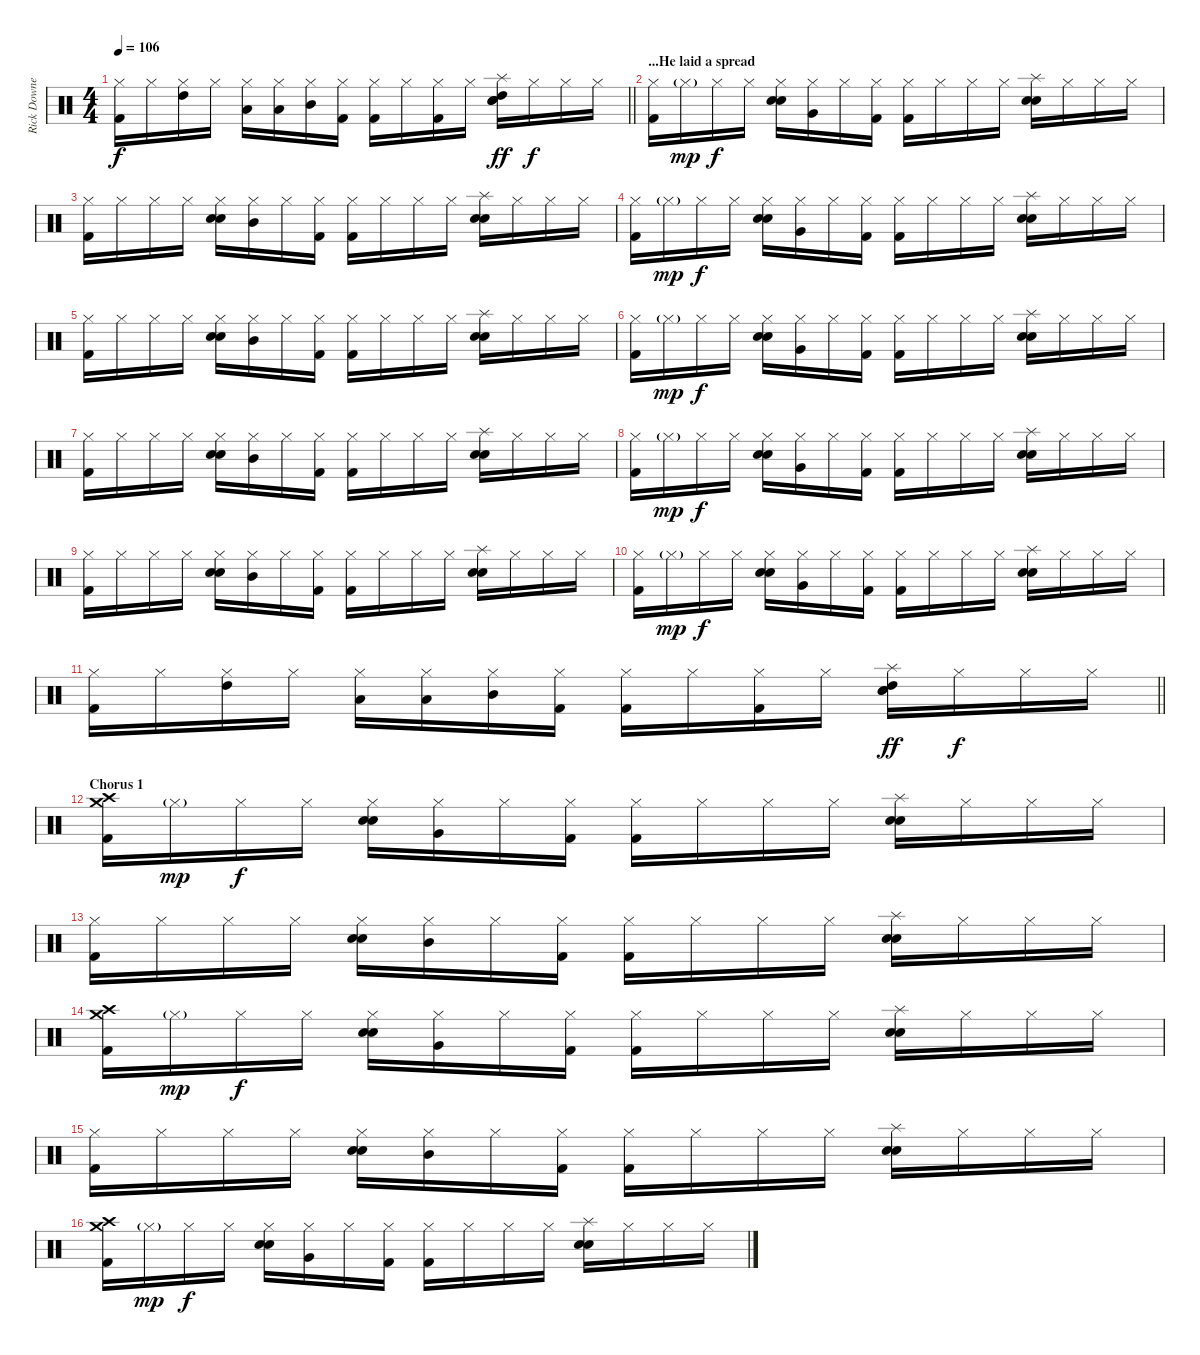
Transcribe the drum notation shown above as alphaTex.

\track ("Rick Downey" "Rick Downe") {instrument percussion}
\staff {score}
\articulation defaults
\ts (4 4)
\tempo 106
\clef neutral
\barLineRight lightlight
\ks c
("Hi-Hat (closed)" "Kick (hit) 2").16{dy f} "Hi-Hat (closed)".16 ("High Tom (hit)" "Hi-Hat (closed)").16 "Hi-Hat (closed)".16 ("Low Tom (hit)" "Hi-Hat (closed)").16 ("Low Tom (hit)" "Hi-Hat (closed)").16 ("Mid Tom (hit)" "Hi-Hat (closed)").16 ("Hi-Hat (closed)" "Kick (hit) 2").16 ("Hi-Hat (closed)" "Kick (hit) 2").16 "Hi-Hat (closed)".16 ("Hi-Hat (closed)" "Kick (hit) 2").16 "Hi-Hat (closed)".16 ("Splash (hit)" "High Tom (hit)" "Electric Snare (hit)" "Snare (hit) 2").16{dy ff} "Hi-Hat (closed)".16{dy f} "Hi-Hat (closed)".16 "Hi-Hat (closed)".16 |
\section ("" "...He laid a spread")
("Hi-Hat (closed)" "Kick (hit) 2").16 "Hi-Hat (closed)"{g}.16{dy mp} "Hi-Hat (closed)".16{dy f} "Hi-Hat (closed)".16 ("Hi-Hat (closed)" "Electric Snare (hit)" "Snare (hit) 2").16 ("Hi-Hat (closed)" "Very Low Tom (hit)").16 "Hi-Hat (closed)".16 ("Hi-Hat (closed)" "Kick (hit) 2").16 ("Hi-Hat (closed)" "Kick (hit) 2").16 "Hi-Hat (closed)".16 "Hi-Hat (closed)".16 "Hi-Hat (closed)".16 ("Splash (hit)" "Electric Snare (hit)" "Snare (hit) 2").16 "Hi-Hat (closed)".16 "Hi-Hat (closed)".16 "Hi-Hat (closed)".16 |
("Hi-Hat (closed)" "Kick (hit) 2").16 "Hi-Hat (closed)".16 "Hi-Hat (closed)".16 "Hi-Hat (closed)".16 ("Hi-Hat (closed)" "Electric Snare (hit)" "Snare (hit) 2").16 ("Mid Tom (hit)" "Hi-Hat (closed)").16 "Hi-Hat (closed)".16 ("Hi-Hat (closed)" "Kick (hit) 2").16 ("Hi-Hat (closed)" "Kick (hit) 2").16 "Hi-Hat (closed)".16 "Hi-Hat (closed)".16 "Hi-Hat (closed)".16 ("Splash (hit)" "Electric Snare (hit)" "Snare (hit) 2").16 "Hi-Hat (closed)".16 "Hi-Hat (closed)".16 "Hi-Hat (closed)".16 |
("Hi-Hat (closed)" "Kick (hit) 2").16 "Hi-Hat (closed)"{g}.16{dy mp} "Hi-Hat (closed)".16{dy f} "Hi-Hat (closed)".16 ("Hi-Hat (closed)" "Electric Snare (hit)" "Snare (hit) 2").16 ("Hi-Hat (closed)" "Very Low Tom (hit)").16 "Hi-Hat (closed)".16 ("Hi-Hat (closed)" "Kick (hit) 2").16 ("Hi-Hat (closed)" "Kick (hit) 2").16 "Hi-Hat (closed)".16 "Hi-Hat (closed)".16 "Hi-Hat (closed)".16 ("Splash (hit)" "Electric Snare (hit)" "Snare (hit) 2").16 "Hi-Hat (closed)".16 "Hi-Hat (closed)".16 "Hi-Hat (closed)".16 |
("Hi-Hat (closed)" "Kick (hit) 2").16 "Hi-Hat (closed)".16 "Hi-Hat (closed)".16 "Hi-Hat (closed)".16 ("Hi-Hat (closed)" "Electric Snare (hit)" "Snare (hit) 2").16 ("Mid Tom (hit)" "Hi-Hat (closed)").16 "Hi-Hat (closed)".16 ("Hi-Hat (closed)" "Kick (hit) 2").16 ("Hi-Hat (closed)" "Kick (hit) 2").16 "Hi-Hat (closed)".16 "Hi-Hat (closed)".16 "Hi-Hat (closed)".16 ("Splash (hit)" "Electric Snare (hit)" "Snare (hit) 2").16 "Hi-Hat (closed)".16 "Hi-Hat (closed)".16 "Hi-Hat (closed)".16 |
("Hi-Hat (closed)" "Kick (hit) 2").16 "Hi-Hat (closed)"{g}.16{dy mp} "Hi-Hat (closed)".16{dy f} "Hi-Hat (closed)".16 ("Hi-Hat (closed)" "Electric Snare (hit)" "Snare (hit) 2").16 ("Hi-Hat (closed)" "Very Low Tom (hit)").16 "Hi-Hat (closed)".16 ("Hi-Hat (closed)" "Kick (hit) 2").16 ("Hi-Hat (closed)" "Kick (hit) 2").16 "Hi-Hat (closed)".16 "Hi-Hat (closed)".16 "Hi-Hat (closed)".16 ("Splash (hit)" "Electric Snare (hit)" "Snare (hit) 2").16 "Hi-Hat (closed)".16 "Hi-Hat (closed)".16 "Hi-Hat (closed)".16 |
("Hi-Hat (closed)" "Kick (hit) 2").16 "Hi-Hat (closed)".16 "Hi-Hat (closed)".16 "Hi-Hat (closed)".16 ("Hi-Hat (closed)" "Electric Snare (hit)" "Snare (hit) 2").16 ("Mid Tom (hit)" "Hi-Hat (closed)").16 "Hi-Hat (closed)".16 ("Hi-Hat (closed)" "Kick (hit) 2").16 ("Hi-Hat (closed)" "Kick (hit) 2").16 "Hi-Hat (closed)".16 "Hi-Hat (closed)".16 "Hi-Hat (closed)".16 ("Splash (hit)" "Electric Snare (hit)" "Snare (hit) 2").16 "Hi-Hat (closed)".16 "Hi-Hat (closed)".16 "Hi-Hat (closed)".16 |
("Hi-Hat (closed)" "Kick (hit) 2").16 "Hi-Hat (closed)"{g}.16{dy mp} "Hi-Hat (closed)".16{dy f} "Hi-Hat (closed)".16 ("Hi-Hat (closed)" "Electric Snare (hit)" "Snare (hit) 2").16 ("Hi-Hat (closed)" "Very Low Tom (hit)").16 "Hi-Hat (closed)".16 ("Hi-Hat (closed)" "Kick (hit) 2").16 ("Hi-Hat (closed)" "Kick (hit) 2").16 "Hi-Hat (closed)".16 "Hi-Hat (closed)".16 "Hi-Hat (closed)".16 ("Splash (hit)" "Electric Snare (hit)" "Snare (hit) 2").16 "Hi-Hat (closed)".16 "Hi-Hat (closed)".16 "Hi-Hat (closed)".16 |
("Hi-Hat (closed)" "Kick (hit) 2").16 "Hi-Hat (closed)".16 "Hi-Hat (closed)".16 "Hi-Hat (closed)".16 ("Hi-Hat (closed)" "Electric Snare (hit)" "Snare (hit) 2").16 ("Mid Tom (hit)" "Hi-Hat (closed)").16 "Hi-Hat (closed)".16 ("Hi-Hat (closed)" "Kick (hit) 2").16 ("Hi-Hat (closed)" "Kick (hit) 2").16 "Hi-Hat (closed)".16 "Hi-Hat (closed)".16 "Hi-Hat (closed)".16 ("Splash (hit)" "Electric Snare (hit)" "Snare (hit) 2").16 "Hi-Hat (closed)".16 "Hi-Hat (closed)".16 "Hi-Hat (closed)".16 |
("Hi-Hat (closed)" "Kick (hit) 2").16 "Hi-Hat (closed)"{g}.16{dy mp} "Hi-Hat (closed)".16{dy f} "Hi-Hat (closed)".16 ("Hi-Hat (closed)" "Electric Snare (hit)" "Snare (hit) 2").16 ("Hi-Hat (closed)" "Very Low Tom (hit)").16 "Hi-Hat (closed)".16 ("Hi-Hat (closed)" "Kick (hit) 2").16 ("Hi-Hat (closed)" "Kick (hit) 2").16 "Hi-Hat (closed)".16 "Hi-Hat (closed)".16 "Hi-Hat (closed)".16 ("Splash (hit)" "Electric Snare (hit)" "Snare (hit) 2").16 "Hi-Hat (closed)".16 "Hi-Hat (closed)".16 "Hi-Hat (closed)".16 |
\barLineRight lightlight
("Hi-Hat (closed)" "Kick (hit) 2").16 "Hi-Hat (closed)".16 ("High Tom (hit)" "Hi-Hat (closed)").16 "Hi-Hat (closed)".16 ("Low Tom (hit)" "Hi-Hat (closed)").16 ("Low Tom (hit)" "Hi-Hat (closed)").16 ("Mid Tom (hit)" "Hi-Hat (closed)").16 ("Hi-Hat (closed)" "Kick (hit) 2").16 ("Hi-Hat (closed)" "Kick (hit) 2").16 "Hi-Hat (closed)".16 ("Hi-Hat (closed)" "Kick (hit) 2").16 "Hi-Hat (closed)".16 ("Splash (hit)" "High Tom (hit)" "Electric Snare (hit)" "Snare (hit) 2").16{dy ff} "Hi-Hat (closed)".16{dy f} "Hi-Hat (closed)".16 "Hi-Hat (closed)".16 |
\section ("" "Chorus 1")
("Crash medium (hit)" "Crash high (hit)" "Kick (hit) 2").16 "Hi-Hat (closed)"{g}.16{dy mp} "Hi-Hat (closed)".16{dy f} "Hi-Hat (closed)".16 ("Hi-Hat (closed)" "Electric Snare (hit)" "Snare (hit) 2").16 ("Hi-Hat (closed)" "Very Low Tom (hit)").16 "Hi-Hat (closed)".16 ("Hi-Hat (closed)" "Kick (hit) 2").16 ("Hi-Hat (closed)" "Kick (hit) 2").16 "Hi-Hat (closed)".16 "Hi-Hat (closed)".16 "Hi-Hat (closed)".16 ("Splash (hit)" "Electric Snare (hit)" "Snare (hit) 2").16 "Hi-Hat (closed)".16 "Hi-Hat (closed)".16 "Hi-Hat (closed)".16 |
("Hi-Hat (closed)" "Kick (hit) 2").16 "Hi-Hat (closed)".16 "Hi-Hat (closed)".16 "Hi-Hat (closed)".16 ("Hi-Hat (closed)" "Electric Snare (hit)" "Snare (hit) 2").16 ("Mid Tom (hit)" "Hi-Hat (closed)").16 "Hi-Hat (closed)".16 ("Hi-Hat (closed)" "Kick (hit) 2").16 ("Hi-Hat (closed)" "Kick (hit) 2").16 "Hi-Hat (closed)".16 "Hi-Hat (closed)".16 "Hi-Hat (closed)".16 ("Splash (hit)" "Electric Snare (hit)" "Snare (hit) 2").16 "Hi-Hat (closed)".16 "Hi-Hat (closed)".16 "Hi-Hat (closed)".16 |
("Crash medium (hit)" "Crash high (hit)" "Kick (hit) 2").16 "Hi-Hat (closed)"{g}.16{dy mp} "Hi-Hat (closed)".16{dy f} "Hi-Hat (closed)".16 ("Hi-Hat (closed)" "Electric Snare (hit)" "Snare (hit) 2").16 ("Hi-Hat (closed)" "Very Low Tom (hit)").16 "Hi-Hat (closed)".16 ("Hi-Hat (closed)" "Kick (hit) 2").16 ("Hi-Hat (closed)" "Kick (hit) 2").16 "Hi-Hat (closed)".16 "Hi-Hat (closed)".16 "Hi-Hat (closed)".16 ("Splash (hit)" "Electric Snare (hit)" "Snare (hit) 2").16 "Hi-Hat (closed)".16 "Hi-Hat (closed)".16 "Hi-Hat (closed)".16 |
("Hi-Hat (closed)" "Kick (hit) 2").16 "Hi-Hat (closed)".16 "Hi-Hat (closed)".16 "Hi-Hat (closed)".16 ("Hi-Hat (closed)" "Electric Snare (hit)" "Snare (hit) 2").16 ("Mid Tom (hit)" "Hi-Hat (closed)").16 "Hi-Hat (closed)".16 ("Hi-Hat (closed)" "Kick (hit) 2").16 ("Hi-Hat (closed)" "Kick (hit) 2").16 "Hi-Hat (closed)".16 "Hi-Hat (closed)".16 "Hi-Hat (closed)".16 ("Splash (hit)" "Electric Snare (hit)" "Snare (hit) 2").16 "Hi-Hat (closed)".16 "Hi-Hat (closed)".16 "Hi-Hat (closed)".16 |
("Crash medium (hit)" "Crash high (hit)" "Kick (hit) 2").16 "Hi-Hat (closed)"{g}.16{dy mp} "Hi-Hat (closed)".16{dy f} "Hi-Hat (closed)".16 ("Hi-Hat (closed)" "Electric Snare (hit)" "Snare (hit) 2").16 ("Hi-Hat (closed)" "Very Low Tom (hit)").16 "Hi-Hat (closed)".16 ("Hi-Hat (closed)" "Kick (hit) 2").16 ("Hi-Hat (closed)" "Kick (hit) 2").16 "Hi-Hat (closed)".16 "Hi-Hat (closed)".16 "Hi-Hat (closed)".16 ("Splash (hit)" "Electric Snare (hit)" "Snare (hit) 2").16 "Hi-Hat (closed)".16 "Hi-Hat (closed)".16 "Hi-Hat (closed)".16
